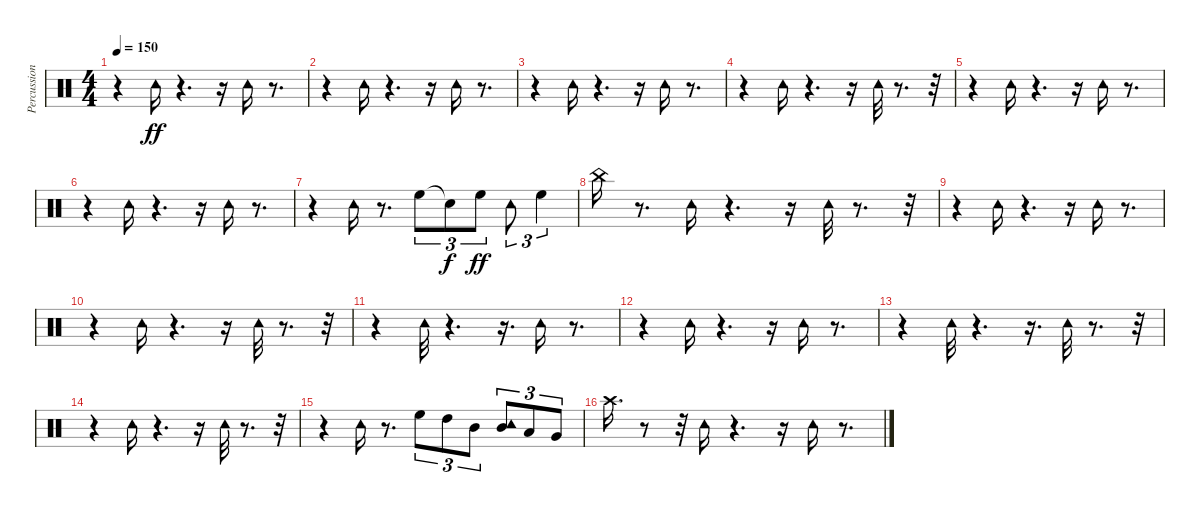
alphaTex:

\track ("Percussion" "Percussion") {instrument percussion}
\staff {score}
\articulation defaults
\ts (4 4)
\tempo 150
\clef neutral
\ks c
r.4{dy ff} "Tambourine (hit)".16 r.4{d} r.16 "Tambourine (hit)".16 r.8{d} |
r.4 "Tambourine (hit)".16 r.4{d} r.16 "Tambourine (hit)".16 r.8{d} |
r.4 "Tambourine (hit)".16 r.4{d} r.16 "Tambourine (hit)".16 r.8{d} |
r.4 "Tambourine (hit)".16 r.4{d} r.16 "Tambourine (hit)".32 r.8{d} r.32 |
r.4 "Tambourine (hit)".16 r.4{d} r.16 "Tambourine (hit)".16 r.8{d} |
r.4 "Tambourine (hit)".16 r.4{d} r.16 "Tambourine (hit)".16 r.8{d} |
r.4 "Tambourine (hit)".16 r.8{d} "High Floor Tom (hit)".8{tu (3 2)} "Snare (hit)"{t}.8{tu (3 2) dy f} "High Floor Tom (hit)".8{tu (3 2) dy ff} "Tambourine (hit)".8{tu (3 2)} "High Floor Tom (hit)".4{tu (3 2)} |
"China (hit)".16 r.8{d} "Tambourine (hit)".16 r.4{d} r.16 "Tambourine (hit)".32 r.8{d} r.32 |
r.4 "Tambourine (hit)".16 r.4{d} r.16 "Tambourine (hit)".16 r.8{d} |
r.4 "Tambourine (hit)".16 r.4{d} r.16 "Tambourine (hit)".32 r.8{d} r.32 |
r.4 "Tambourine (hit)".32 r.4{d} r.16{d} "Tambourine (hit)".16 r.8{d} |
r.4 "Tambourine (hit)".16 r.4{d} r.16 "Tambourine (hit)".16 r.8{d} |
r.4 "Tambourine (hit)".32 r.4{d} r.16{d} "Tambourine (hit)".32 r.8{d} r.32 |
r.4 "Tambourine (hit)".16 r.4{d} r.16 "Tambourine (hit)".32 r.8{d} r.32 |
r.4 "Tambourine (hit)".16 r.8{d} "High Floor Tom (hit)".8{tu (3 2)} "High Tom (hit)".8{tu (3 2)} "Mid Tom (hit)".8{tu (3 2)} ("Tambourine (hit)" "Mid Tom (hit)").8{tu (3 2)} "Low Tom (hit)".8{tu (3 2)} "Very Low Tom (hit)".8{tu (3 2)} |
"Crash high (hit)".16{d} r.8 r.32 "Tambourine (hit)".16 r.4{d} r.16 "Tambourine (hit)".16 r.8{d}
